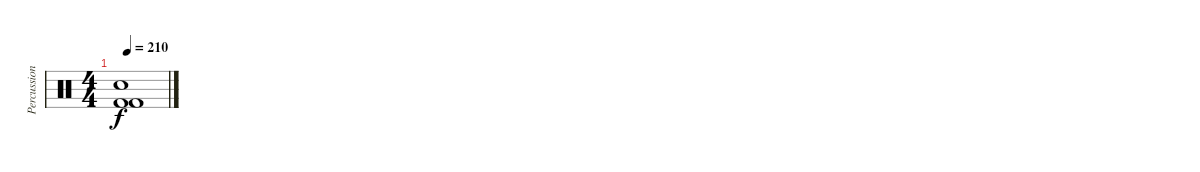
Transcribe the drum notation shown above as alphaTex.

\track ("Percussion" "Percussion") {instrument percussion}
\staff {score}
\articulation defaults
\ts (4 4)
\tempo 210
\clef neutral
\ks c
("Electric Snare (hit)" "Kick (hit) 2" "Kick (hit) 2").1{dy f}
